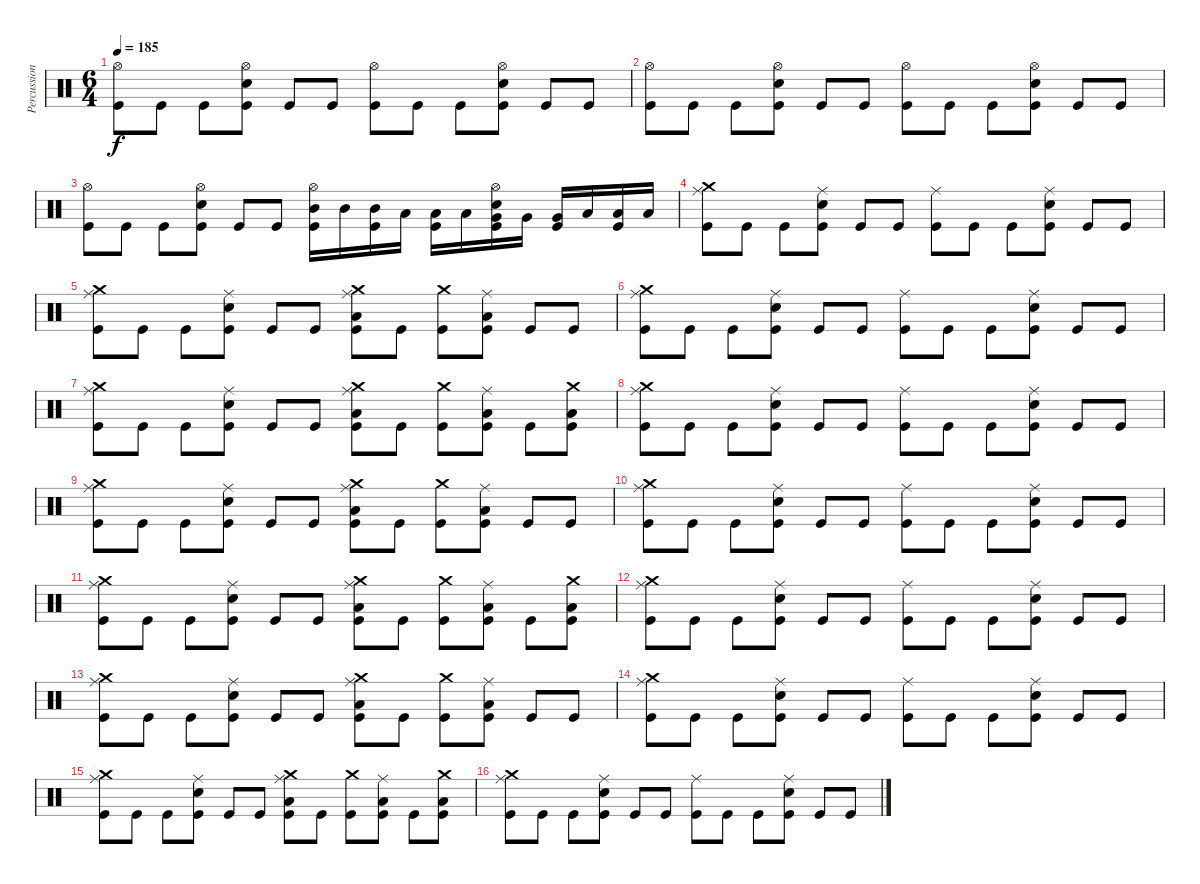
\track ("Percussion" "Percussion") {instrument percussion}
\staff {score}
\articulation defaults
\ts (6 4)
\tempo 185
\clef neutral
\ks c
("Hi-Hat (open)" "Kick (hit)").8{dy f} "Kick (hit)".8 "Kick (hit)".8 ("Electric Snare (hit)" "Hi-Hat (open)" "Kick (hit)").8 "Kick (hit)".8 "Kick (hit)".8 ("Hi-Hat (open)" "Kick (hit)").8 "Kick (hit)".8 "Kick (hit)".8 ("Electric Snare (hit)" "Hi-Hat (open)" "Kick (hit)").8 "Kick (hit)".8 "Kick (hit)".8 |
("Hi-Hat (open)" "Kick (hit)").8 "Kick (hit)".8 "Kick (hit)".8 ("Electric Snare (hit)" "Hi-Hat (open)" "Kick (hit)").8 "Kick (hit)".8 "Kick (hit)".8 ("Hi-Hat (open)" "Kick (hit)").8 "Kick (hit)".8 "Kick (hit)".8 ("Electric Snare (hit)" "Hi-Hat (open)" "Kick (hit)").8 "Kick (hit)".8 "Kick (hit)".8 |
("Hi-Hat (open)" "Kick (hit)").8 "Kick (hit)".8 "Kick (hit)".8 ("Electric Snare (hit)" "Hi-Hat (open)" "Kick (hit)").8 "Kick (hit)".8 "Kick (hit)".8 ("Mid Tom (hit)" "Hi-Hat (open)" "Kick (hit)").16 "Mid Tom (hit)".16 ("Mid Tom (hit)" "Kick (hit)").16 "Low Tom (hit)".16 ("Low Tom (hit)" "Kick (hit)").16 "Low Tom (hit)".16 ("Very Low Tom (hit)" "Electric Snare (hit)" "Hi-Hat (open)" "Kick (hit)").16 "Very Low Tom (hit)".16 ("Very Low Tom (hit)" "Kick (hit)").16 "Low Floor Tom (hit)".16 ("Low Floor Tom (hit)" "Kick (hit)").16 "Low Floor Tom (hit)".16 |
("Crash medium (hit)" "Ride (middle)" "Kick (hit)").8 "Kick (hit)".8 "Kick (hit)".8 ("Electric Snare (hit)" "Ride (middle)" "Kick (hit)").8 "Kick (hit)".8 "Kick (hit)".8 ("Ride (middle)" "Kick (hit)").8 "Kick (hit)".8 "Kick (hit)".8 ("Electric Snare (hit)" "Ride (middle)" "Kick (hit)").8 "Kick (hit)".8 "Kick (hit)".8 |
("Crash medium (hit)" "Ride (middle)" "Kick (hit)").8 "Kick (hit)".8 "Kick (hit)".8 ("Electric Snare (hit)" "Ride (middle)" "Kick (hit)").8 "Kick (hit)".8 "Kick (hit)".8 ("Low Floor Tom (hit)" "Ride (middle)" "Crash medium (hit)" "Kick (hit)").8 "Kick (hit)".8 ("Crash medium (hit)" "Kick (hit)").8 ("Low Floor Tom (hit)" "Ride (middle)" "Kick (hit)").8 "Kick (hit)".8 "Kick (hit)".8 |
("Crash medium (hit)" "Ride (middle)" "Kick (hit)").8 "Kick (hit)".8 "Kick (hit)".8 ("Electric Snare (hit)" "Ride (middle)" "Kick (hit)").8 "Kick (hit)".8 "Kick (hit)".8 ("Ride (middle)" "Kick (hit)").8 "Kick (hit)".8 "Kick (hit)".8 ("Electric Snare (hit)" "Ride (middle)" "Kick (hit)").8 "Kick (hit)".8 "Kick (hit)".8 |
("Crash medium (hit)" "Ride (middle)" "Kick (hit)").8 "Kick (hit)".8 "Kick (hit)".8 ("Electric Snare (hit)" "Ride (middle)" "Kick (hit)").8 "Kick (hit)".8 "Kick (hit)".8 ("Low Floor Tom (hit)" "Ride (middle)" "Crash medium (hit)" "Kick (hit)").8 "Kick (hit)".8 ("Crash medium (hit)" "Kick (hit)").8 ("Low Floor Tom (hit)" "Ride (middle)" "Kick (hit)").8 "Kick (hit)".8 ("Low Floor Tom (hit)" "Crash medium (hit)" "Kick (hit)").8 |
("Crash medium (hit)" "Ride (middle)" "Kick (hit)").8 "Kick (hit)".8 "Kick (hit)".8 ("Electric Snare (hit)" "Ride (middle)" "Kick (hit)").8 "Kick (hit)".8 "Kick (hit)".8 ("Ride (middle)" "Kick (hit)").8 "Kick (hit)".8 "Kick (hit)".8 ("Electric Snare (hit)" "Ride (middle)" "Kick (hit)").8 "Kick (hit)".8 "Kick (hit)".8 |
("Crash medium (hit)" "Ride (middle)" "Kick (hit)").8 "Kick (hit)".8 "Kick (hit)".8 ("Electric Snare (hit)" "Ride (middle)" "Kick (hit)").8 "Kick (hit)".8 "Kick (hit)".8 ("Low Floor Tom (hit)" "Ride (middle)" "Crash medium (hit)" "Kick (hit)").8 "Kick (hit)".8 ("Crash medium (hit)" "Kick (hit)").8 ("Low Floor Tom (hit)" "Ride (middle)" "Kick (hit)").8 "Kick (hit)".8 "Kick (hit)".8 |
("Crash medium (hit)" "Ride (middle)" "Kick (hit)").8 "Kick (hit)".8 "Kick (hit)".8 ("Electric Snare (hit)" "Ride (middle)" "Kick (hit)").8 "Kick (hit)".8 "Kick (hit)".8 ("Ride (middle)" "Kick (hit)").8 "Kick (hit)".8 "Kick (hit)".8 ("Electric Snare (hit)" "Ride (middle)" "Kick (hit)").8 "Kick (hit)".8 "Kick (hit)".8 |
("Crash medium (hit)" "Ride (middle)" "Kick (hit)").8 "Kick (hit)".8 "Kick (hit)".8 ("Electric Snare (hit)" "Ride (middle)" "Kick (hit)").8 "Kick (hit)".8 "Kick (hit)".8 ("Low Floor Tom (hit)" "Ride (middle)" "Crash medium (hit)" "Kick (hit)").8 "Kick (hit)".8 ("Crash medium (hit)" "Kick (hit)").8 ("Low Floor Tom (hit)" "Ride (middle)" "Kick (hit)").8 "Kick (hit)".8 ("Low Floor Tom (hit)" "Crash medium (hit)" "Kick (hit)").8 |
("Crash medium (hit)" "Ride (middle)" "Kick (hit)").8 "Kick (hit)".8 "Kick (hit)".8 ("Electric Snare (hit)" "Ride (middle)" "Kick (hit)").8 "Kick (hit)".8 "Kick (hit)".8 ("Ride (middle)" "Kick (hit)").8 "Kick (hit)".8 "Kick (hit)".8 ("Electric Snare (hit)" "Ride (middle)" "Kick (hit)").8 "Kick (hit)".8 "Kick (hit)".8 |
("Crash medium (hit)" "Ride (middle)" "Kick (hit)").8 "Kick (hit)".8 "Kick (hit)".8 ("Electric Snare (hit)" "Ride (middle)" "Kick (hit)").8 "Kick (hit)".8 "Kick (hit)".8 ("Low Floor Tom (hit)" "Ride (middle)" "Crash medium (hit)" "Kick (hit)").8 "Kick (hit)".8 ("Crash medium (hit)" "Kick (hit)").8 ("Low Floor Tom (hit)" "Ride (middle)" "Kick (hit)").8 "Kick (hit)".8 "Kick (hit)".8 |
("Crash medium (hit)" "Ride (middle)" "Kick (hit)").8 "Kick (hit)".8 "Kick (hit)".8 ("Electric Snare (hit)" "Ride (middle)" "Kick (hit)").8 "Kick (hit)".8 "Kick (hit)".8 ("Ride (middle)" "Kick (hit)").8 "Kick (hit)".8 "Kick (hit)".8 ("Electric Snare (hit)" "Ride (middle)" "Kick (hit)").8 "Kick (hit)".8 "Kick (hit)".8 |
("Crash medium (hit)" "Ride (middle)" "Kick (hit)").8 "Kick (hit)".8 "Kick (hit)".8 ("Electric Snare (hit)" "Ride (middle)" "Kick (hit)").8 "Kick (hit)".8 "Kick (hit)".8 ("Low Floor Tom (hit)" "Ride (middle)" "Crash medium (hit)" "Kick (hit)").8 "Kick (hit)".8 ("Crash medium (hit)" "Kick (hit)").8 ("Low Floor Tom (hit)" "Ride (middle)" "Kick (hit)").8 "Kick (hit)".8 ("Low Floor Tom (hit)" "Crash medium (hit)" "Kick (hit)").8 |
("Crash medium (hit)" "Ride (middle)" "Kick (hit)").8 "Kick (hit)".8 "Kick (hit)".8 ("Electric Snare (hit)" "Ride (middle)" "Kick (hit)").8 "Kick (hit)".8 "Kick (hit)".8 ("Ride (middle)" "Kick (hit)").8 "Kick (hit)".8 "Kick (hit)".8 ("Electric Snare (hit)" "Ride (middle)" "Kick (hit)").8 "Kick (hit)".8 "Kick (hit)".8
